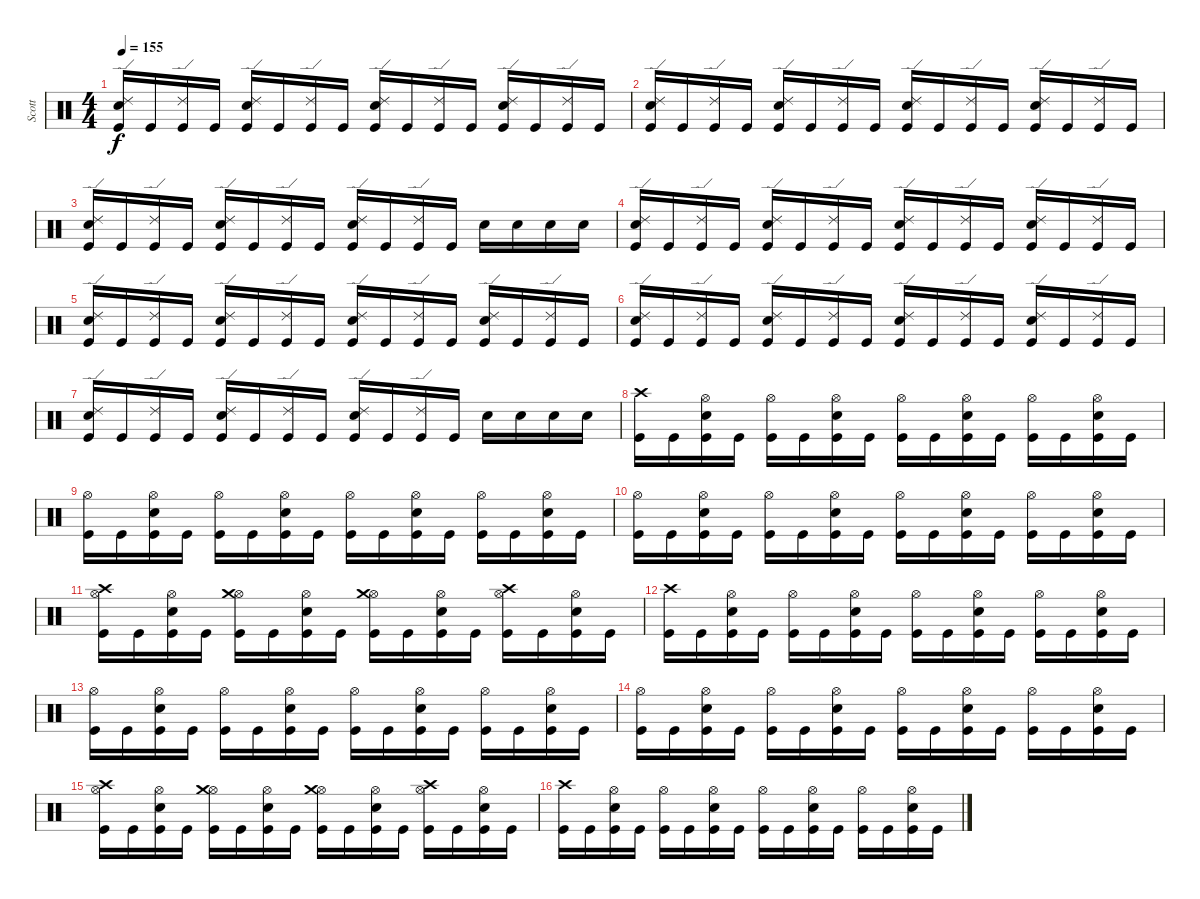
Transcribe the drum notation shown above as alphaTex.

\track ("Scott" "Scott") {instrument percussion}
\staff {score}
\articulation defaults
\ts (4 4)
\tempo 155
\clef neutral
\ks c
("Ride (edge) 2" "Snare (hit) 2" "Kick (hit)").16{dy f} "Kick (hit)".16 ("Ride (edge) 2" "Kick (hit)").16 "Kick (hit)".16 ("Ride (edge) 2" "Snare (hit) 2" "Kick (hit)").16 "Kick (hit)".16 ("Ride (edge) 2" "Kick (hit)").16 "Kick (hit)".16 ("Ride (edge) 2" "Snare (hit) 2" "Kick (hit)").16 "Kick (hit)".16 ("Ride (edge) 2" "Kick (hit)").16 "Kick (hit)".16 ("Ride (edge) 2" "Snare (hit) 2" "Kick (hit)").16 "Kick (hit)".16 ("Ride (edge) 2" "Kick (hit)").16 "Kick (hit)".16 |
("Ride (edge) 2" "Snare (hit) 2" "Kick (hit)").16 "Kick (hit)".16 ("Ride (edge) 2" "Kick (hit)").16 "Kick (hit)".16 ("Ride (edge) 2" "Snare (hit) 2" "Kick (hit)").16 "Kick (hit)".16 ("Ride (edge) 2" "Kick (hit)").16 "Kick (hit)".16 ("Ride (edge) 2" "Snare (hit) 2" "Kick (hit)").16 "Kick (hit)".16 ("Ride (edge) 2" "Kick (hit)").16 "Kick (hit)".16 ("Ride (edge) 2" "Snare (hit) 2" "Kick (hit)").16 "Kick (hit)".16 ("Ride (edge) 2" "Kick (hit)").16 "Kick (hit)".16 |
("Ride (edge) 2" "Snare (hit) 2" "Kick (hit)").16 "Kick (hit)".16 ("Ride (edge) 2" "Kick (hit)").16 "Kick (hit)".16 ("Ride (edge) 2" "Snare (hit) 2" "Kick (hit)").16 "Kick (hit)".16 ("Ride (edge) 2" "Kick (hit)").16 "Kick (hit)".16 ("Ride (edge) 2" "Snare (hit) 2" "Kick (hit)").16 "Kick (hit)".16 ("Ride (edge) 2" "Kick (hit)").16 "Kick (hit)".16 "Snare (hit) 2".16 "Snare (hit) 2".16 "Snare (hit) 2".16 "Snare (hit) 2".16 |
("Ride (edge) 2" "Snare (hit) 2" "Kick (hit)").16 "Kick (hit)".16 ("Ride (edge) 2" "Kick (hit)").16 "Kick (hit)".16 ("Ride (edge) 2" "Snare (hit) 2" "Kick (hit)").16 "Kick (hit)".16 ("Ride (edge) 2" "Kick (hit)").16 "Kick (hit)".16 ("Ride (edge) 2" "Snare (hit) 2" "Kick (hit)").16 "Kick (hit)".16 ("Ride (edge) 2" "Kick (hit)").16 "Kick (hit)".16 ("Ride (edge) 2" "Snare (hit) 2" "Kick (hit)").16 "Kick (hit)".16 ("Ride (edge) 2" "Kick (hit)").16 "Kick (hit)".16 |
("Ride (edge) 2" "Snare (hit) 2" "Kick (hit)").16 "Kick (hit)".16 ("Ride (edge) 2" "Kick (hit)").16 "Kick (hit)".16 ("Ride (edge) 2" "Snare (hit) 2" "Kick (hit)").16 "Kick (hit)".16 ("Ride (edge) 2" "Kick (hit)").16 "Kick (hit)".16 ("Ride (edge) 2" "Snare (hit) 2" "Kick (hit)").16 "Kick (hit)".16 ("Ride (edge) 2" "Kick (hit)").16 "Kick (hit)".16 ("Ride (edge) 2" "Snare (hit) 2" "Kick (hit)").16 "Kick (hit)".16 ("Ride (edge) 2" "Kick (hit)").16 "Kick (hit)".16 |
("Ride (edge) 2" "Snare (hit) 2" "Kick (hit)").16 "Kick (hit)".16 ("Ride (edge) 2" "Kick (hit)").16 "Kick (hit)".16 ("Ride (edge) 2" "Snare (hit) 2" "Kick (hit)").16 "Kick (hit)".16 ("Ride (edge) 2" "Kick (hit)").16 "Kick (hit)".16 ("Ride (edge) 2" "Snare (hit) 2" "Kick (hit)").16 "Kick (hit)".16 ("Ride (edge) 2" "Kick (hit)").16 "Kick (hit)".16 ("Ride (edge) 2" "Snare (hit) 2" "Kick (hit)").16 "Kick (hit)".16 ("Ride (edge) 2" "Kick (hit)").16 "Kick (hit)".16 |
("Ride (edge) 2" "Snare (hit) 2" "Kick (hit)").16 "Kick (hit)".16 ("Ride (edge) 2" "Kick (hit)").16 "Kick (hit)".16 ("Ride (edge) 2" "Snare (hit) 2" "Kick (hit)").16 "Kick (hit)".16 ("Ride (edge) 2" "Kick (hit)").16 "Kick (hit)".16 ("Ride (edge) 2" "Snare (hit) 2" "Kick (hit)").16 "Kick (hit)".16 ("Ride (edge) 2" "Kick (hit)").16 "Kick (hit)".16 "Snare (hit) 2".16 "Snare (hit) 2".16 "Snare (hit) 2".16 "Snare (hit) 2".16 |
("Crash high (hit)" "Kick (hit)").16 "Kick (hit)".16 ("Hi-Hat (open)" "Snare (hit) 2" "Kick (hit)").16 "Kick (hit)".16 ("Hi-Hat (open)" "Kick (hit)").16 "Kick (hit)".16 ("Hi-Hat (open)" "Snare (hit) 2" "Kick (hit)").16 "Kick (hit)".16 ("Hi-Hat (open)" "Kick (hit)").16 "Kick (hit)".16 ("Hi-Hat (open)" "Snare (hit) 2" "Kick (hit)").16 "Kick (hit)".16 ("Hi-Hat (open)" "Kick (hit)").16 "Kick (hit)".16 ("Hi-Hat (open)" "Snare (hit) 2" "Kick (hit)").16 "Kick (hit)".16 |
("Hi-Hat (open)" "Kick (hit)").16 "Kick (hit)".16 ("Hi-Hat (open)" "Snare (hit) 2" "Kick (hit)").16 "Kick (hit)".16 ("Hi-Hat (open)" "Kick (hit)").16 "Kick (hit)".16 ("Hi-Hat (open)" "Snare (hit) 2" "Kick (hit)").16 "Kick (hit)".16 ("Hi-Hat (open)" "Kick (hit)").16 "Kick (hit)".16 ("Hi-Hat (open)" "Snare (hit) 2" "Kick (hit)").16 "Kick (hit)".16 ("Hi-Hat (open)" "Kick (hit)").16 "Kick (hit)".16 ("Hi-Hat (open)" "Snare (hit) 2" "Kick (hit)").16 "Kick (hit)".16 |
("Hi-Hat (open)" "Kick (hit)").16 "Kick (hit)".16 ("Hi-Hat (open)" "Snare (hit) 2" "Kick (hit)").16 "Kick (hit)".16 ("Hi-Hat (open)" "Kick (hit)").16 "Kick (hit)".16 ("Hi-Hat (open)" "Snare (hit) 2" "Kick (hit)").16 "Kick (hit)".16 ("Hi-Hat (open)" "Kick (hit)").16 "Kick (hit)".16 ("Hi-Hat (open)" "Snare (hit) 2" "Kick (hit)").16 "Kick (hit)".16 ("Hi-Hat (open)" "Kick (hit)").16 "Kick (hit)".16 ("Hi-Hat (open)" "Snare (hit) 2" "Kick (hit)").16 "Kick (hit)".16 |
("Hi-Hat (open)" "Crash high (hit)" "Kick (hit)").16 "Kick (hit)".16 ("Hi-Hat (open)" "Snare (hit) 2" "Kick (hit)").16 "Kick (hit)".16 ("Hi-Hat (open)" "Crash medium (hit)" "Kick (hit)").16 "Kick (hit)".16 ("Hi-Hat (open)" "Snare (hit) 2" "Kick (hit)").16 "Kick (hit)".16 ("Hi-Hat (open)" "Crash medium (hit)" "Kick (hit)").16 "Kick (hit)".16 ("Hi-Hat (open)" "Snare (hit) 2" "Kick (hit)").16 "Kick (hit)".16 ("Hi-Hat (open)" "Crash high (hit)" "Kick (hit)").16 "Kick (hit)".16 ("Hi-Hat (open)" "Snare (hit) 2" "Kick (hit)").16 "Kick (hit)".16 |
("Crash high (hit)" "Kick (hit)").16 "Kick (hit)".16 ("Hi-Hat (open)" "Snare (hit) 2" "Kick (hit)").16 "Kick (hit)".16 ("Hi-Hat (open)" "Kick (hit)").16 "Kick (hit)".16 ("Hi-Hat (open)" "Snare (hit) 2" "Kick (hit)").16 "Kick (hit)".16 ("Hi-Hat (open)" "Kick (hit)").16 "Kick (hit)".16 ("Hi-Hat (open)" "Snare (hit) 2" "Kick (hit)").16 "Kick (hit)".16 ("Hi-Hat (open)" "Kick (hit)").16 "Kick (hit)".16 ("Hi-Hat (open)" "Snare (hit) 2" "Kick (hit)").16 "Kick (hit)".16 |
("Hi-Hat (open)" "Kick (hit)").16 "Kick (hit)".16 ("Hi-Hat (open)" "Snare (hit) 2" "Kick (hit)").16 "Kick (hit)".16 ("Hi-Hat (open)" "Kick (hit)").16 "Kick (hit)".16 ("Hi-Hat (open)" "Snare (hit) 2" "Kick (hit)").16 "Kick (hit)".16 ("Hi-Hat (open)" "Kick (hit)").16 "Kick (hit)".16 ("Hi-Hat (open)" "Snare (hit) 2" "Kick (hit)").16 "Kick (hit)".16 ("Hi-Hat (open)" "Kick (hit)").16 "Kick (hit)".16 ("Hi-Hat (open)" "Snare (hit) 2" "Kick (hit)").16 "Kick (hit)".16 |
("Hi-Hat (open)" "Kick (hit)").16 "Kick (hit)".16 ("Hi-Hat (open)" "Snare (hit) 2" "Kick (hit)").16 "Kick (hit)".16 ("Hi-Hat (open)" "Kick (hit)").16 "Kick (hit)".16 ("Hi-Hat (open)" "Snare (hit) 2" "Kick (hit)").16 "Kick (hit)".16 ("Hi-Hat (open)" "Kick (hit)").16 "Kick (hit)".16 ("Hi-Hat (open)" "Snare (hit) 2" "Kick (hit)").16 "Kick (hit)".16 ("Hi-Hat (open)" "Kick (hit)").16 "Kick (hit)".16 ("Hi-Hat (open)" "Snare (hit) 2" "Kick (hit)").16 "Kick (hit)".16 |
("Hi-Hat (open)" "Crash high (hit)" "Kick (hit)").16 "Kick (hit)".16 ("Hi-Hat (open)" "Snare (hit) 2" "Kick (hit)").16 "Kick (hit)".16 ("Hi-Hat (open)" "Crash medium (hit)" "Kick (hit)").16 "Kick (hit)".16 ("Hi-Hat (open)" "Snare (hit) 2" "Kick (hit)").16 "Kick (hit)".16 ("Hi-Hat (open)" "Crash medium (hit)" "Kick (hit)").16 "Kick (hit)".16 ("Hi-Hat (open)" "Snare (hit) 2" "Kick (hit)").16 "Kick (hit)".16 ("Hi-Hat (open)" "Crash high (hit)" "Kick (hit)").16 "Kick (hit)".16 ("Hi-Hat (open)" "Snare (hit) 2" "Kick (hit)").16 "Kick (hit)".16 |
("Crash high (hit)" "Kick (hit)").16 "Kick (hit)".16 ("Hi-Hat (open)" "Snare (hit) 2" "Kick (hit)").16 "Kick (hit)".16 ("Hi-Hat (open)" "Kick (hit)").16 "Kick (hit)".16 ("Hi-Hat (open)" "Snare (hit) 2" "Kick (hit)").16 "Kick (hit)".16 ("Hi-Hat (open)" "Kick (hit)").16 "Kick (hit)".16 ("Hi-Hat (open)" "Snare (hit) 2" "Kick (hit)").16 "Kick (hit)".16 ("Hi-Hat (open)" "Kick (hit)").16 "Kick (hit)".16 ("Hi-Hat (open)" "Snare (hit) 2" "Kick (hit)").16 "Kick (hit)".16
